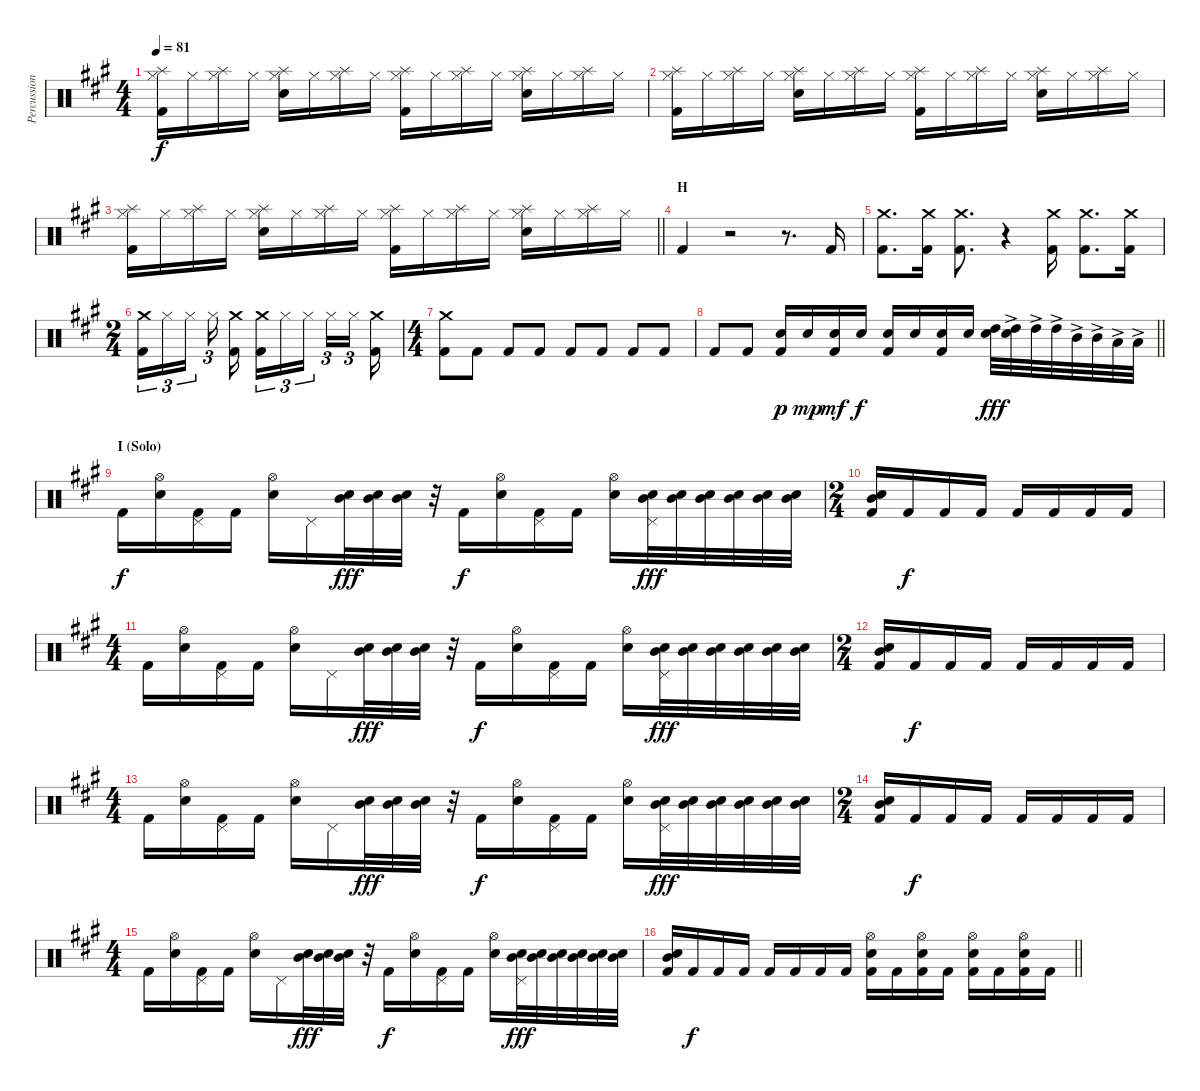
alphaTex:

\track ("Percussion" "Percussion") {instrument percussion}
\staff {score}
\articulation defaults
\ts (4 4)
\tempo 81
\clef neutral
\ks f#minor
("Splash (hit)" "Hi-Hat (closed)" "Kick (hit) 2").16{dy f} "Hi-Hat (closed)".16 ("Splash (hit)" "Hi-Hat (closed)").16 "Hi-Hat (closed)".16 ("Splash (hit)" "Hi-Hat (closed)" "Snare (hit) 2").16 "Hi-Hat (closed)".16 ("Splash (hit)" "Hi-Hat (closed)").16 "Hi-Hat (closed)".16 ("Splash (hit)" "Hi-Hat (closed)" "Kick (hit) 2").16 "Hi-Hat (closed)".16 ("Splash (hit)" "Hi-Hat (closed)").16 "Hi-Hat (closed)".16 ("Splash (hit)" "Hi-Hat (closed)" "Snare (hit) 2").16 "Hi-Hat (closed)".16 ("Splash (hit)" "Hi-Hat (closed)").16 "Hi-Hat (closed)".16 |
("Splash (hit)" "Hi-Hat (closed)" "Kick (hit) 2").16 "Hi-Hat (closed)".16 ("Splash (hit)" "Hi-Hat (closed)").16 "Hi-Hat (closed)".16 ("Splash (hit)" "Hi-Hat (closed)" "Snare (hit) 2").16 "Hi-Hat (closed)".16 ("Splash (hit)" "Hi-Hat (closed)").16 "Hi-Hat (closed)".16 ("Splash (hit)" "Hi-Hat (closed)" "Kick (hit) 2").16 "Hi-Hat (closed)".16 ("Splash (hit)" "Hi-Hat (closed)").16 "Hi-Hat (closed)".16 ("Splash (hit)" "Hi-Hat (closed)" "Snare (hit) 2").16 "Hi-Hat (closed)".16 ("Splash (hit)" "Hi-Hat (closed)").16 "Hi-Hat (closed)".16 |
\barLineRight lightlight
("Splash (hit)" "Hi-Hat (closed)" "Kick (hit) 2").16 "Hi-Hat (closed)".16 ("Splash (hit)" "Hi-Hat (closed)").16 "Hi-Hat (closed)".16 ("Splash (hit)" "Hi-Hat (closed)" "Snare (hit) 2").16 "Hi-Hat (closed)".16 ("Splash (hit)" "Hi-Hat (closed)").16 "Hi-Hat (closed)".16 ("Splash (hit)" "Hi-Hat (closed)" "Kick (hit) 2").16 "Hi-Hat (closed)".16 ("Splash (hit)" "Hi-Hat (closed)").16 "Hi-Hat (closed)".16 ("Splash (hit)" "Hi-Hat (closed)" "Snare (hit) 2").16 "Hi-Hat (closed)".16 ("Splash (hit)" "Hi-Hat (closed)").16 "Hi-Hat (closed)".16 |
\section ("" "H")
"Kick (hit) 2".4 r.2 r.8{d} "Kick (hit) 2".16 |
("Crash medium (hit)" "Kick (hit) 2").8{d} ("Crash medium (hit)" "Kick (hit) 2").16 ("Crash medium (hit)" "Kick (hit) 2").8{d} r.4 ("Crash medium (hit)" "Kick (hit) 2").16 ("Crash medium (hit)" "Kick (hit) 2").8{d} ("Crash medium (hit)" "Kick (hit) 2").16 |
\ts (2 4)
("Crash medium (hit)" "Kick (hit) 2").16{tu (3 2)} "Hi-Hat (closed)".16{tu (3 2)} "Hi-Hat (closed)".16{tu (3 2) beam splitsecondary} "Hi-Hat (closed)".16{tu (3 2) beam splitsecondary} ("Crash medium (hit)" "Kick (hit) 2").16 ("Crash medium (hit)" "Kick (hit) 2").16{tu (3 2)} "Hi-Hat (closed)".16{tu (3 2)} "Hi-Hat (closed)".16{tu (3 2) beam splitsecondary} "Hi-Hat (closed)".16{tu (3 2)} "Hi-Hat (closed)".16{tu (3 2) beam splitsecondary} ("Crash medium (hit)" "Kick (hit) 2").16 |
\ts (4 4)
("Crash medium (hit)" "Kick (hit) 2").8 "Kick (hit) 2".8 "Kick (hit) 2".8 "Kick (hit) 2".8 "Kick (hit) 2".8 "Kick (hit) 2".8 "Kick (hit) 2".8 "Kick (hit) 2".8 |
\barLineRight lightlight "Kick (hit) 2".8 "Kick (hit) 2".8
("Snare (hit) 2" "Kick (hit) 2").16{dy p} "Snare (hit) 2".16{dy mp} ("Snare (hit) 2" "Kick (hit) 2").16{dy mf} "Snare (hit) 2".16{dy f} ("Snare (hit) 2" "Kick (hit) 2").16 "Snare (hit) 2".16 ("Snare (hit) 2" "Kick (hit) 2").16 "Snare (hit) 2".16 ("High Tom (hit)" "Snare (hit) 2").32{dy fff} ("High Tom (hit)"{ac} "Snare (hit) 2").32 "High Tom (hit)"{ac}.32 "High Tom (hit)"{ac}.32 "Mid Tom (hit)"{ac}.32 "Mid Tom (hit)"{ac}.32 "Low Tom (hit)"{ac}.32 "Low Tom (hit)"{ac}.32 |
\section ("" "I (Solo)")
"Kick (hit) 2".16{dy f} ("Hi-Hat (open)" "Snare (hit) 2").16 ("Pedal Hi-Hat (hit)" "Kick (hit) 2").16 "Kick (hit) 2".16 ("Hi-Hat (open)" "Snare (hit) 2").16 "Pedal Hi-Hat (hit)".16 ("Mid Tom (hit)" "Snare (hit) 2").32{dy fff} ("Mid Tom (hit)" "Snare (hit) 2").32 ("Mid Tom (hit)" "Snare (hit) 2").32 r.32 "Kick (hit) 2".16{dy f} ("Hi-Hat (open)" "Snare (hit) 2").16 ("Pedal Hi-Hat (hit)" "Kick (hit) 2").16 "Kick (hit) 2".16 ("Hi-Hat (open)" "Snare (hit) 2").16 ("Pedal Hi-Hat (hit)" "Mid Tom (hit)" "Snare (hit) 2").32{dy fff} ("Mid Tom (hit)" "Snare (hit) 2").32 ("Mid Tom (hit)" "Snare (hit) 2").32 ("Mid Tom (hit)" "Snare (hit) 2").32 ("Mid Tom (hit)" "Snare (hit) 2").32 ("Mid Tom (hit)" "Snare (hit) 2").32 |
\ts (2 4)
("Mid Tom (hit)" "Snare (hit) 2" "Kick (hit) 2").16 "Kick (hit) 2".16{dy f} "Kick (hit) 2".16 "Kick (hit) 2".16 "Kick (hit) 2".16 "Kick (hit) 2".16 "Kick (hit) 2".16 "Kick (hit) 2".16 |
\ts (4 4)
"Kick (hit) 2".16 ("Hi-Hat (open)" "Snare (hit) 2").16 ("Pedal Hi-Hat (hit)" "Kick (hit) 2").16 "Kick (hit) 2".16 ("Hi-Hat (open)" "Snare (hit) 2").16 "Pedal Hi-Hat (hit)".16 ("Mid Tom (hit)" "Snare (hit) 2").32{dy fff} ("Mid Tom (hit)" "Snare (hit) 2").32 ("Mid Tom (hit)" "Snare (hit) 2").32 r.32 "Kick (hit) 2".16{dy f} ("Hi-Hat (open)" "Snare (hit) 2").16 ("Pedal Hi-Hat (hit)" "Kick (hit) 2").16 "Kick (hit) 2".16 ("Hi-Hat (open)" "Snare (hit) 2").16 ("Pedal Hi-Hat (hit)" "Mid Tom (hit)" "Snare (hit) 2").32{dy fff} ("Mid Tom (hit)" "Snare (hit) 2").32 ("Mid Tom (hit)" "Snare (hit) 2").32 ("Mid Tom (hit)" "Snare (hit) 2").32 ("Mid Tom (hit)" "Snare (hit) 2").32 ("Mid Tom (hit)" "Snare (hit) 2").32 |
\ts (2 4)
("Mid Tom (hit)" "Snare (hit) 2" "Kick (hit) 2").16 "Kick (hit) 2".16{dy f} "Kick (hit) 2".16 "Kick (hit) 2".16 "Kick (hit) 2".16 "Kick (hit) 2".16 "Kick (hit) 2".16 "Kick (hit) 2".16 |
\ts (4 4)
"Kick (hit) 2".16 ("Hi-Hat (open)" "Snare (hit) 2").16 ("Pedal Hi-Hat (hit)" "Kick (hit) 2").16 "Kick (hit) 2".16 ("Hi-Hat (open)" "Snare (hit) 2").16 "Pedal Hi-Hat (hit)".16 ("Mid Tom (hit)" "Snare (hit) 2").32{dy fff} ("Mid Tom (hit)" "Snare (hit) 2").32 ("Mid Tom (hit)" "Snare (hit) 2").32 r.32 "Kick (hit) 2".16{dy f} ("Hi-Hat (open)" "Snare (hit) 2").16 ("Pedal Hi-Hat (hit)" "Kick (hit) 2").16 "Kick (hit) 2".16 ("Hi-Hat (open)" "Snare (hit) 2").16 ("Pedal Hi-Hat (hit)" "Mid Tom (hit)" "Snare (hit) 2").32{dy fff} ("Mid Tom (hit)" "Snare (hit) 2").32 ("Mid Tom (hit)" "Snare (hit) 2").32 ("Mid Tom (hit)" "Snare (hit) 2").32 ("Mid Tom (hit)" "Snare (hit) 2").32 ("Mid Tom (hit)" "Snare (hit) 2").32 |
\ts (2 4)
("Mid Tom (hit)" "Snare (hit) 2" "Kick (hit) 2").16 "Kick (hit) 2".16{dy f} "Kick (hit) 2".16 "Kick (hit) 2".16 "Kick (hit) 2".16 "Kick (hit) 2".16 "Kick (hit) 2".16 "Kick (hit) 2".16 |
\ts (4 4)
"Kick (hit) 2".16 ("Hi-Hat (open)" "Snare (hit) 2").16 ("Pedal Hi-Hat (hit)" "Kick (hit) 2").16 "Kick (hit) 2".16 ("Hi-Hat (open)" "Snare (hit) 2").16 "Pedal Hi-Hat (hit)".16 ("Mid Tom (hit)" "Snare (hit) 2").32{dy fff} ("Mid Tom (hit)" "Snare (hit) 2").32 ("Mid Tom (hit)" "Snare (hit) 2").32 r.32 "Kick (hit) 2".16{dy f} ("Hi-Hat (open)" "Snare (hit) 2").16 ("Pedal Hi-Hat (hit)" "Kick (hit) 2").16 "Kick (hit) 2".16 ("Hi-Hat (open)" "Snare (hit) 2").16 ("Pedal Hi-Hat (hit)" "Mid Tom (hit)" "Snare (hit) 2").32{dy fff} ("Mid Tom (hit)" "Snare (hit) 2").32 ("Mid Tom (hit)" "Snare (hit) 2").32 ("Mid Tom (hit)" "Snare (hit) 2").32 ("Mid Tom (hit)" "Snare (hit) 2").32 ("Mid Tom (hit)" "Snare (hit) 2").32 |
\barLineRight lightlight
("Mid Tom (hit)" "Snare (hit) 2" "Kick (hit) 2").16 "Kick (hit) 2".16{dy f} "Kick (hit) 2".16 "Kick (hit) 2".16 "Kick (hit) 2".16 "Kick (hit) 2".16 "Kick (hit) 2".16 "Kick (hit) 2".16 ("Hi-Hat (open)" "Snare (hit) 2" "Kick (hit) 2").16 "Kick (hit) 2".16 ("Hi-Hat (open)" "Snare (hit) 2" "Kick (hit) 2").16 "Kick (hit) 2".16 ("Hi-Hat (open)" "Snare (hit) 2" "Kick (hit) 2").16 "Kick (hit) 2".16 ("Hi-Hat (open)" "Snare (hit) 2" "Kick (hit) 2").16 "Kick (hit) 2".16
